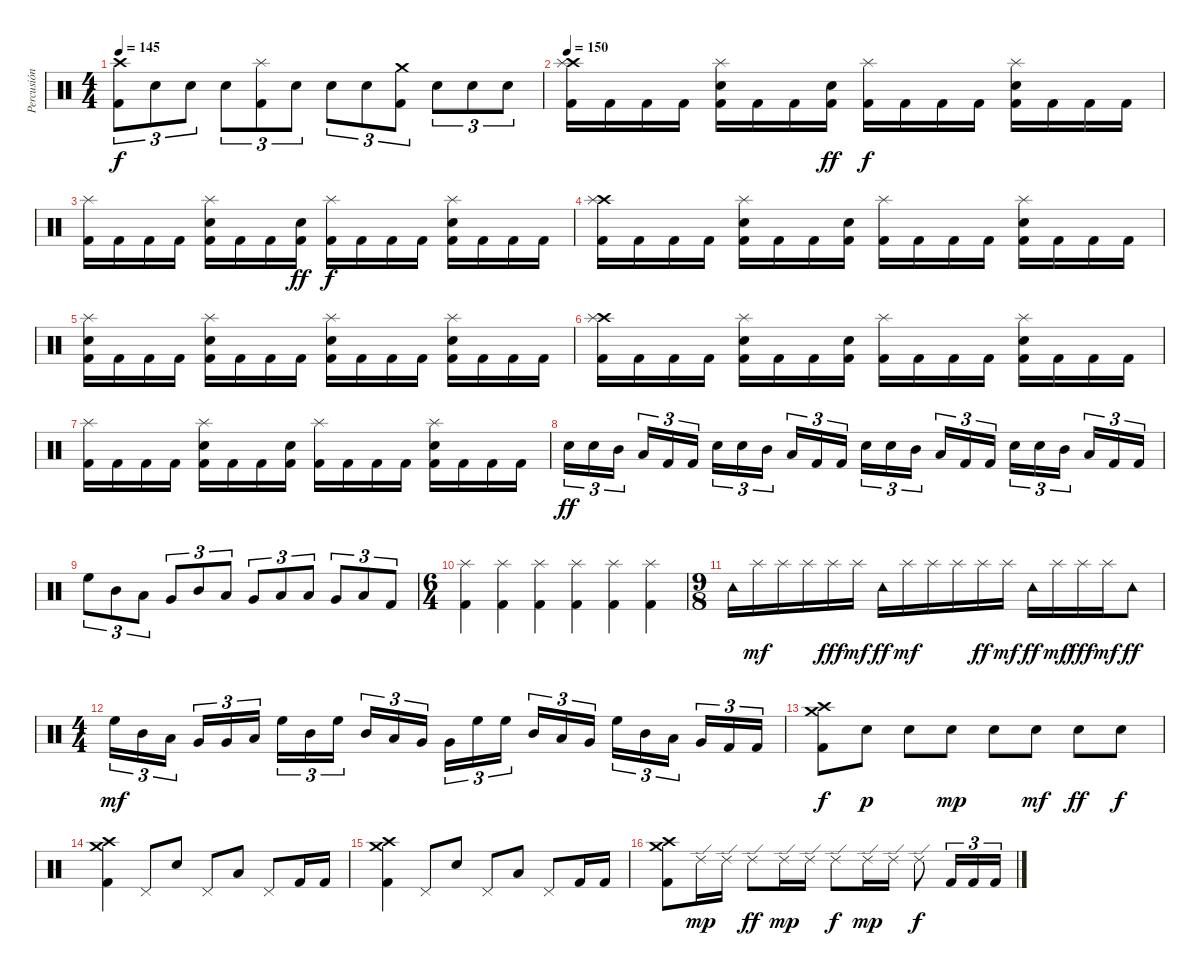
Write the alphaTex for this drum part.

\track ("Percusión" "Percusión") {instrument percussion}
\staff {score}
\articulation defaults
\ts (4 4)
\tempo 145
\clef neutral
\ks c
("Crash high (hit)" "Kick (hit) 2").8{tu (3 2) dy f} "Electric Snare (hit)".8{tu (3 2)} "Electric Snare (hit)".8{tu (3 2)} "Electric Snare (hit)".8{tu (3 2)} ("Splash (hit)" "Kick (hit) 2").8{tu (3 2)} "Electric Snare (hit)".8{tu (3 2)} "Electric Snare (hit)".8{tu (3 2)} "Electric Snare (hit)".8{tu (3 2)} ("Crash medium (hit)" "Kick (hit) 2").8{tu (3 2)} "Electric Snare (hit)".8{tu (3 2)} "Electric Snare (hit)".8{tu (3 2)} "Electric Snare (hit)".8{tu (3 2)} |
\tempo 150
("Crash high (hit)" "Splash (hit)" "Kick (hit) 2").16 "Kick (hit) 2".16 "Kick (hit) 2".16 "Kick (hit) 2".16 ("Splash (hit)" "Electric Snare (hit)" "Kick (hit) 2").16 "Kick (hit) 2".16 "Kick (hit) 2".16 ("Electric Snare (hit)" "Kick (hit) 2").16{dy ff} ("Splash (hit)" "Kick (hit) 2").16{dy f} "Kick (hit) 2".16 "Kick (hit) 2".16 "Kick (hit) 2".16 ("Splash (hit)" "Electric Snare (hit)" "Kick (hit) 2").16 "Kick (hit) 2".16 "Kick (hit) 2".16 "Kick (hit) 2".16 |
("Splash (hit)" "Kick (hit) 2").16 "Kick (hit) 2".16 "Kick (hit) 2".16 "Kick (hit) 2".16 ("Splash (hit)" "Electric Snare (hit)" "Kick (hit) 2").16 "Kick (hit) 2".16 "Kick (hit) 2".16 ("Electric Snare (hit)" "Kick (hit) 2").16{dy ff} ("Splash (hit)" "Kick (hit) 2").16{dy f} "Kick (hit) 2".16 "Kick (hit) 2".16 "Kick (hit) 2".16 ("Splash (hit)" "Electric Snare (hit)" "Kick (hit) 2").16 "Kick (hit) 2".16 "Kick (hit) 2".16 "Kick (hit) 2".16 |
("Crash high (hit)" "Splash (hit)" "Kick (hit) 2").16 "Kick (hit) 2".16 "Kick (hit) 2".16 "Kick (hit) 2".16 ("Splash (hit)" "Electric Snare (hit)" "Kick (hit) 2").16 "Kick (hit) 2".16 "Kick (hit) 2".16 ("Electric Snare (hit)" "Kick (hit) 2").16 ("Splash (hit)" "Kick (hit) 2").16 "Kick (hit) 2".16 "Kick (hit) 2".16 "Kick (hit) 2".16 ("Splash (hit)" "Electric Snare (hit)" "Kick (hit) 2").16 "Kick (hit) 2".16 "Kick (hit) 2".16 "Kick (hit) 2".16 |
("Splash (hit)" "Electric Snare (hit)" "Kick (hit) 2").16 "Kick (hit) 2".16 "Kick (hit) 2".16 "Kick (hit) 2".16 ("Splash (hit)" "Electric Snare (hit)" "Kick (hit) 2").16 "Kick (hit) 2".16 "Kick (hit) 2".16 "Kick (hit) 2".16 ("Splash (hit)" "Electric Snare (hit)" "Kick (hit) 2").16 "Kick (hit) 2".16 "Kick (hit) 2".16 "Kick (hit) 2".16 ("Splash (hit)" "Electric Snare (hit)" "Kick (hit) 2").16 "Kick (hit) 2".16 "Kick (hit) 2".16 "Kick (hit) 2".16 |
("Crash high (hit)" "Splash (hit)" "Kick (hit) 2").16 "Kick (hit) 2".16 "Kick (hit) 2".16 "Kick (hit) 2".16 ("Splash (hit)" "Electric Snare (hit)" "Kick (hit) 2").16 "Kick (hit) 2".16 "Kick (hit) 2".16 ("Electric Snare (hit)" "Kick (hit) 2").16 ("Splash (hit)" "Kick (hit) 2").16 "Kick (hit) 2".16 "Kick (hit) 2".16 "Kick (hit) 2".16 ("Splash (hit)" "Electric Snare (hit)" "Kick (hit) 2").16 "Kick (hit) 2".16 "Kick (hit) 2".16 "Kick (hit) 2".16 |
("Splash (hit)" "Kick (hit) 2").16 "Kick (hit) 2".16 "Kick (hit) 2".16 "Kick (hit) 2".16 ("Splash (hit)" "Electric Snare (hit)" "Kick (hit) 2").16 "Kick (hit) 2".16 "Kick (hit) 2".16 ("Electric Snare (hit)" "Kick (hit) 2").16 ("Splash (hit)" "Kick (hit) 2").16 "Kick (hit) 2".16 "Kick (hit) 2".16 "Kick (hit) 2".16 ("Splash (hit)" "Electric Snare (hit)" "Kick (hit) 2").16 "Kick (hit) 2".16 "Kick (hit) 2".16 "Kick (hit) 2".16 |
"Electric Snare (hit)".16{tu (3 2) dy ff} "Electric Snare (hit)".16{tu (3 2)} "Mid Tom (hit)".16{tu (3 2) beam splitsecondary} "Low Tom (hit)".16{tu (3 2)} "Kick (hit) 2".16{tu (3 2)} "Kick (hit) 2".16{tu (3 2)} "Electric Snare (hit)".16{tu (3 2)} "Electric Snare (hit)".16{tu (3 2)} "Mid Tom (hit)".16{tu (3 2) beam splitsecondary} "Low Tom (hit)".16{tu (3 2)} "Kick (hit) 2".16{tu (3 2)} "Kick (hit) 2".16{tu (3 2)} "Electric Snare (hit)".16{tu (3 2)} "Electric Snare (hit)".16{tu (3 2)} "Mid Tom (hit)".16{tu (3 2) beam splitsecondary} "Low Tom (hit)".16{tu (3 2)} "Kick (hit) 2".16{tu (3 2)} "Kick (hit) 2".16{tu (3 2)} "Electric Snare (hit)".16{tu (3 2)} "Electric Snare (hit)".16{tu (3 2)} "Mid Tom (hit)".16{tu (3 2) beam splitsecondary} "Low Tom (hit)".16{tu (3 2)} "Kick (hit) 2".16{tu (3 2)} "Kick (hit) 2".16{tu (3 2)} |
"High Floor Tom (hit)".8{tu (3 2)} "Mid Tom (hit)".8{tu (3 2)} "Low Tom (hit)".8{tu (3 2)} "Very Low Tom (hit)".8{tu (3 2)} "Mid Tom (hit)".8{tu (3 2)} "Low Tom (hit)".8{tu (3 2)} "Very Low Tom (hit)".8{tu (3 2)} "Low Floor Tom (hit)".8{tu (3 2)} "Low Tom (hit)".8{tu (3 2)} "Very Low Tom (hit)".8{tu (3 2)} "Low Floor Tom (hit)".8{tu (3 2)} "Kick (hit) 2".8{tu (3 2)} |
\ts (6 4)
("Splash (hit)" "Kick (hit) 2").4 ("Splash (hit)" "Kick (hit) 2").4 ("Splash (hit)" "Kick (hit) 2").4 ("Splash (hit)" "Kick (hit) 2").4 ("Splash (hit)" "Kick (hit) 2").4 ("Splash (hit)" "Kick (hit) 2").4 |
\ts (9 8)
"Tambourine (hit)".16 "Splash (hit)".16{dy mf} "Splash (hit)".16 "Splash (hit)".16 "Splash (hit)".16{dy fff} "Splash (hit)".16{dy mf} "Tambourine (hit)".16{dy ff} "Splash (hit)".16{dy mf} "Splash (hit)".16 "Splash (hit)".16 "Splash (hit)".16{dy ff} "Splash (hit)".16{dy mf} "Tambourine (hit)".16{dy ff} "Splash (hit)".16{dy mf} "Splash (hit)".16{dy fff} "Splash (hit)".16{dy mf} "Tambourine (hit)".8{dy ff} |
\ts (4 4)
"High Floor Tom (hit)".16{tu (3 2) dy mf} "Mid Tom (hit)".16{tu (3 2)} "Low Tom (hit)".16{tu (3 2) beam splitsecondary} "Very Low Tom (hit)".16{tu (3 2)} "Very Low Tom (hit)".16{tu (3 2)} "Low Floor Tom (hit)".16{tu (3 2)} "High Floor Tom (hit)".16{tu (3 2)} "Mid Tom (hit)".16{tu (3 2)} "High Floor Tom (hit)".16{tu (3 2) beam splitsecondary} "Mid Tom (hit)".16{tu (3 2)} "Low Tom (hit)".16{tu (3 2)} "Very Low Tom (hit)".16{tu (3 2)} "Very Low Tom (hit)".16{tu (3 2)} "High Floor Tom (hit)".16{tu (3 2)} "High Floor Tom (hit)".16{tu (3 2) beam splitsecondary} "Mid Tom (hit)".16{tu (3 2)} "Low Tom (hit)".16{tu (3 2)} "Very Low Tom (hit)".16{tu (3 2)} "High Floor Tom (hit)".16{tu (3 2)} "Mid Tom (hit)".16{tu (3 2)} "Low Tom (hit)".16{tu (3 2) beam splitsecondary} "Very Low Tom (hit)".16{tu (3 2)} "Kick (hit) 2".16{tu (3 2)} "Kick (hit) 2".16{tu (3 2)} |
("Crash high (hit)" "Crash medium (hit)" "Kick (hit) 2").8{dy f} "Electric Snare (hit)".8{dy p} "Electric Snare (hit)".8 "Electric Snare (hit)".8{dy mp} "Electric Snare (hit)".8 "Electric Snare (hit)".8{dy mf} "Electric Snare (hit)".8{dy ff} "Electric Snare (hit)".8{dy f} |
("Crash high (hit)" "Crash medium (hit)" "Kick (hit) 2").4 "Pedal Hi-Hat (hit)".8 "Electric Snare (hit)".8 "Pedal Hi-Hat (hit)".8 "Low Tom (hit)".8 "Pedal Hi-Hat (hit)".8 "Kick (hit) 2".16 "Kick (hit) 2".16 |
("Crash high (hit)" "Crash medium (hit)" "Kick (hit) 2").4 "Pedal Hi-Hat (hit)".8 "Electric Snare (hit)".8 "Pedal Hi-Hat (hit)".8 "Low Tom (hit)".8 "Pedal Hi-Hat (hit)".8 "Kick (hit) 2".16 "Kick (hit) 2".16 |
("Crash high (hit)" "Crash medium (hit)" "Kick (hit) 2").8 "Ride (edge) 2".16{dy mp} "Ride (edge) 2".16 "Ride (edge) 2".8{dy ff} "Ride (edge) 2".16{dy mp} "Ride (edge) 2".16 "Ride (edge) 2".8{dy f} "Ride (edge) 2".16{dy mp} "Ride (edge) 2".16 "Ride (edge) 2".8{dy f} "Kick (hit) 2".16{tu (3 2)} "Kick (hit) 2".16{tu (3 2)} "Kick (hit) 2".16{tu (3 2)}
